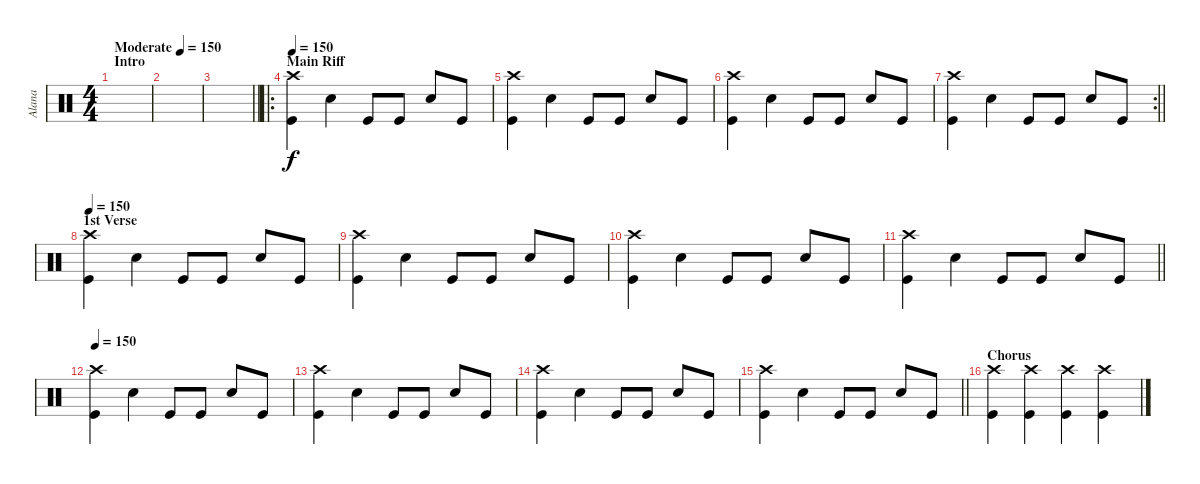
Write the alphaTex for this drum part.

\track ("Alana" "Alana") {instrument percussion}
\staff {score}
\articulation defaults
\ts (4 4)
\section ("" "Intro")
\tempo (150 "Moderate")
\clef neutral
\ks c
|
|
\barLineRight lightlight
|
\ro
\section ("" "Main Riff")
\tempo 150
("Crash high (hit)" "Kick (hit)").4 "Electric Snare (hit)".4 "Kick (hit)".8 "Kick (hit)".8 "Electric Snare (hit)".8 "Kick (hit)".8 |
("Crash high (hit)" "Kick (hit)").4 "Electric Snare (hit)".4 "Kick (hit)".8 "Kick (hit)".8 "Electric Snare (hit)".8 "Kick (hit)".8 |
("Crash high (hit)" "Kick (hit)").4 "Electric Snare (hit)".4 "Kick (hit)".8 "Kick (hit)".8 "Electric Snare (hit)".8 "Kick (hit)".8 |
\rc 2
\barLineRight lightlight
("Crash high (hit)" "Kick (hit)").4 "Electric Snare (hit)".4 "Kick (hit)".8 "Kick (hit)".8 "Electric Snare (hit)".8 "Kick (hit)".8 |
\section ("" "1st Verse")
\tempo 150
("Crash high (hit)" "Kick (hit)").4 "Electric Snare (hit)".4 "Kick (hit)".8 "Kick (hit)".8 "Electric Snare (hit)".8 "Kick (hit)".8 |
("Crash high (hit)" "Kick (hit)").4 "Electric Snare (hit)".4 "Kick (hit)".8 "Kick (hit)".8 "Electric Snare (hit)".8 "Kick (hit)".8 |
("Crash high (hit)" "Kick (hit)").4 "Electric Snare (hit)".4 "Kick (hit)".8 "Kick (hit)".8 "Electric Snare (hit)".8 "Kick (hit)".8 |
\barLineRight lightlight
("Crash high (hit)" "Kick (hit)").4 "Electric Snare (hit)".4 "Kick (hit)".8 "Kick (hit)".8 "Electric Snare (hit)".8 "Kick (hit)".8 |
\tempo 150
("Crash high (hit)" "Kick (hit)").4 "Electric Snare (hit)".4 "Kick (hit)".8 "Kick (hit)".8 "Electric Snare (hit)".8 "Kick (hit)".8 |
("Crash high (hit)" "Kick (hit)").4 "Electric Snare (hit)".4 "Kick (hit)".8 "Kick (hit)".8 "Electric Snare (hit)".8 "Kick (hit)".8 |
("Crash high (hit)" "Kick (hit)").4 "Electric Snare (hit)".4 "Kick (hit)".8 "Kick (hit)".8 "Electric Snare (hit)".8 "Kick (hit)".8 |
\barLineRight lightlight
("Crash high (hit)" "Kick (hit)").4 "Electric Snare (hit)".4 "Kick (hit)".8 "Kick (hit)".8 "Electric Snare (hit)".8 "Kick (hit)".8 |
\section ("" "Chorus")
("Crash high (hit)" "Kick (hit)").4 ("Crash high (hit)" "Kick (hit)").4 ("Crash high (hit)" "Kick (hit)").4 ("Crash high (hit)" "Kick (hit)").4
